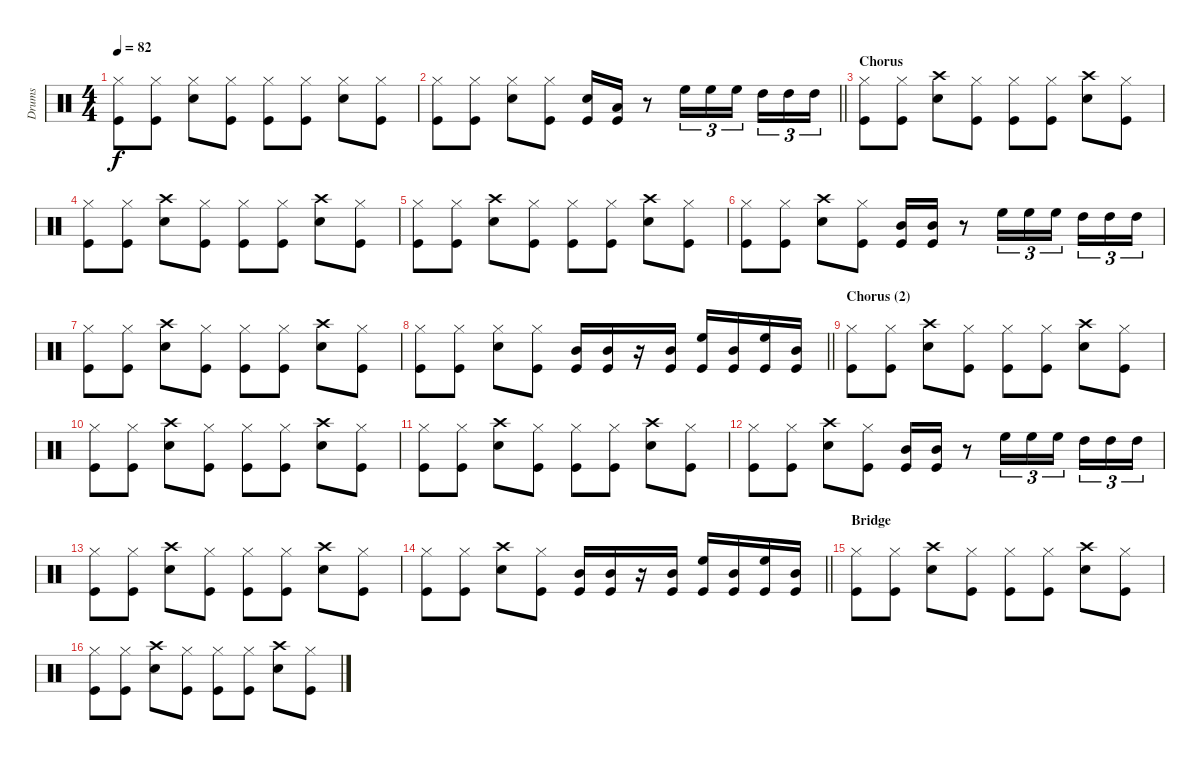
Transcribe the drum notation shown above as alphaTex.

\track ("Drums" "Drums") {instrument percussion}
\staff {score}
\articulation defaults
\ts (4 4)
\tempo 82
\clef neutral
\ks c
("Hi-Hat (closed)" "Kick (hit)").8{dy f} ("Hi-Hat (closed)" "Kick (hit)").8 ("Hi-Hat (closed)" "Snare (hit) 2").8 ("Kick (hit)" "Hi-Hat (closed)").8 ("Kick (hit)" "Hi-Hat (closed)").8 ("Kick (hit)" "Hi-Hat (closed)").8 ("Snare (hit) 2" "Hi-Hat (closed)").8 ("Kick (hit)" "Hi-Hat (closed)").8 |
\barLineRight lightlight
("Hi-Hat (closed)" "Kick (hit)").8 ("Hi-Hat (closed)" "Kick (hit)").8 ("Hi-Hat (closed)" "Snare (hit) 2").8 ("Kick (hit)" "Hi-Hat (closed)").8 ("Snare (hit) 2" "Kick (hit)").16 ("Low Tom (hit)" "Kick (hit)").16 r.8 "High Floor Tom (hit)".16{tu (3 2)} "High Floor Tom (hit)".16{tu (3 2)} "High Floor Tom (hit)".16{tu (3 2) beam splitsecondary} "High Tom (hit)".16{tu (3 2)} "High Tom (hit)".16{tu (3 2)} "High Tom (hit)".16{tu (3 2)} |
\section ("" "Chorus")
("Hi-Hat (closed)" "Kick (hit)").8 ("Hi-Hat (closed)" "Kick (hit)").8 ("Crash high (hit)" "Snare (hit) 2").8 ("Kick (hit)" "Hi-Hat (closed)").8 ("Kick (hit)" "Hi-Hat (closed)").8 ("Kick (hit)" "Hi-Hat (closed)").8 ("Snare (hit) 2" "Crash high (hit)").8 ("Kick (hit)" "Hi-Hat (closed)").8 |
("Hi-Hat (closed)" "Kick (hit)").8 ("Hi-Hat (closed)" "Kick (hit)").8 ("Crash high (hit)" "Snare (hit) 2").8 ("Kick (hit)" "Hi-Hat (closed)").8 ("Kick (hit)" "Hi-Hat (closed)").8 ("Kick (hit)" "Hi-Hat (closed)").8 ("Snare (hit) 2" "Crash high (hit)").8 ("Kick (hit)" "Hi-Hat (closed)").8 |
("Hi-Hat (closed)" "Kick (hit)").8 ("Hi-Hat (closed)" "Kick (hit)").8 ("Crash high (hit)" "Snare (hit) 2").8 ("Kick (hit)" "Hi-Hat (closed)").8 ("Kick (hit)" "Hi-Hat (closed)").8 ("Kick (hit)" "Hi-Hat (closed)").8 ("Snare (hit) 2" "Crash high (hit)").8 ("Kick (hit)" "Hi-Hat (closed)").8 |
("Hi-Hat (closed)" "Kick (hit)").8 ("Hi-Hat (closed)" "Kick (hit)").8 ("Crash high (hit)" "Snare (hit) 2").8 ("Kick (hit)" "Hi-Hat (closed)").8 ("Kick (hit)" "Mid Tom (hit)").16 ("Mid Tom (hit)" "Kick (hit)").16 r.8 "High Floor Tom (hit)".16{tu (3 2)} "High Floor Tom (hit)".16{tu (3 2)} "High Floor Tom (hit)".16{tu (3 2) beam splitsecondary} "High Tom (hit)".16{tu (3 2)} "High Tom (hit)".16{tu (3 2)} "High Tom (hit)".16{tu (3 2)} |
("Hi-Hat (closed)" "Kick (hit)").8 ("Hi-Hat (closed)" "Kick (hit)").8 ("Crash high (hit)" "Snare (hit) 2").8 ("Kick (hit)" "Hi-Hat (closed)").8 ("Kick (hit)" "Hi-Hat (closed)").8 ("Kick (hit)" "Hi-Hat (closed)").8 ("Snare (hit) 2" "Crash high (hit)").8 ("Kick (hit)" "Hi-Hat (closed)").8 |
\barLineRight lightlight
("Hi-Hat (closed)" "Kick (hit)").8 ("Hi-Hat (closed)" "Kick (hit)").8 ("Hi-Hat (closed)" "Snare (hit) 2").8 ("Kick (hit)" "Hi-Hat (closed)").8 ("Kick (hit)" "Mid Tom (hit)").16 ("Kick (hit)" "Mid Tom (hit)").16 r.16 ("Kick (hit)" "Mid Tom (hit)").16 ("High Floor Tom (hit)" "Kick (hit)").16 ("Kick (hit)" "Mid Tom (hit)").16 ("High Floor Tom (hit)" "Kick (hit)").16 ("Mid Tom (hit)" "Kick (hit)").16 |
\section ("" "Chorus (2)")
("Hi-Hat (closed)" "Kick (hit)").8 ("Hi-Hat (closed)" "Kick (hit)").8 ("Crash high (hit)" "Snare (hit) 2").8 ("Kick (hit)" "Hi-Hat (closed)").8 ("Kick (hit)" "Hi-Hat (closed)").8 ("Kick (hit)" "Hi-Hat (closed)").8 ("Snare (hit) 2" "Crash high (hit)").8 ("Kick (hit)" "Hi-Hat (closed)").8 |
("Hi-Hat (closed)" "Kick (hit)").8 ("Hi-Hat (closed)" "Kick (hit)").8 ("Crash high (hit)" "Snare (hit) 2").8 ("Kick (hit)" "Hi-Hat (closed)").8 ("Kick (hit)" "Hi-Hat (closed)").8 ("Kick (hit)" "Hi-Hat (closed)").8 ("Snare (hit) 2" "Crash high (hit)").8 ("Kick (hit)" "Hi-Hat (closed)").8 |
("Hi-Hat (closed)" "Kick (hit)").8 ("Hi-Hat (closed)" "Kick (hit)").8 ("Crash high (hit)" "Snare (hit) 2").8 ("Kick (hit)" "Hi-Hat (closed)").8 ("Kick (hit)" "Hi-Hat (closed)").8 ("Kick (hit)" "Hi-Hat (closed)").8 ("Snare (hit) 2" "Crash high (hit)").8 ("Kick (hit)" "Hi-Hat (closed)").8 |
("Hi-Hat (closed)" "Kick (hit)").8 ("Hi-Hat (closed)" "Kick (hit)").8 ("Crash high (hit)" "Snare (hit) 2").8 ("Kick (hit)" "Hi-Hat (closed)").8 ("Kick (hit)" "Mid Tom (hit)").16 ("Mid Tom (hit)" "Kick (hit)").16 r.8 "High Floor Tom (hit)".16{tu (3 2)} "High Floor Tom (hit)".16{tu (3 2)} "High Floor Tom (hit)".16{tu (3 2) beam splitsecondary} "High Tom (hit)".16{tu (3 2)} "High Tom (hit)".16{tu (3 2)} "High Tom (hit)".16{tu (3 2)} |
("Hi-Hat (closed)" "Kick (hit)").8 ("Hi-Hat (closed)" "Kick (hit)").8 ("Crash high (hit)" "Snare (hit) 2").8 ("Kick (hit)" "Hi-Hat (closed)").8 ("Kick (hit)" "Hi-Hat (closed)").8 ("Kick (hit)" "Hi-Hat (closed)").8 ("Snare (hit) 2" "Crash high (hit)").8 ("Kick (hit)" "Hi-Hat (closed)").8 |
\barLineRight lightlight
("Hi-Hat (closed)" "Kick (hit)").8 ("Hi-Hat (closed)" "Kick (hit)").8 ("Crash high (hit)" "Snare (hit) 2").8 ("Kick (hit)" "Hi-Hat (closed)").8 ("Kick (hit)" "Mid Tom (hit)").16 ("Kick (hit)" "Mid Tom (hit)").16 r.16 ("Kick (hit)" "Mid Tom (hit)").16 ("High Floor Tom (hit)" "Kick (hit)").16 ("Kick (hit)" "Mid Tom (hit)").16 ("High Floor Tom (hit)" "Kick (hit)").16 ("Mid Tom (hit)" "Kick (hit)").16 |
\section ("" "Bridge")
("Hi-Hat (closed)" "Kick (hit)").8 ("Hi-Hat (closed)" "Kick (hit)").8 ("Crash high (hit)" "Snare (hit) 2").8 ("Kick (hit)" "Hi-Hat (closed)").8 ("Kick (hit)" "Hi-Hat (closed)").8 ("Kick (hit)" "Hi-Hat (closed)").8 ("Snare (hit) 2" "Crash high (hit)").8 ("Kick (hit)" "Hi-Hat (closed)").8 |
("Hi-Hat (closed)" "Kick (hit)").8 ("Hi-Hat (closed)" "Kick (hit)").8 ("Crash high (hit)" "Snare (hit) 2").8 ("Kick (hit)" "Hi-Hat (closed)").8 ("Kick (hit)" "Hi-Hat (closed)").8 ("Kick (hit)" "Hi-Hat (closed)").8 ("Snare (hit) 2" "Crash high (hit)").8 ("Kick (hit)" "Hi-Hat (closed)").8
